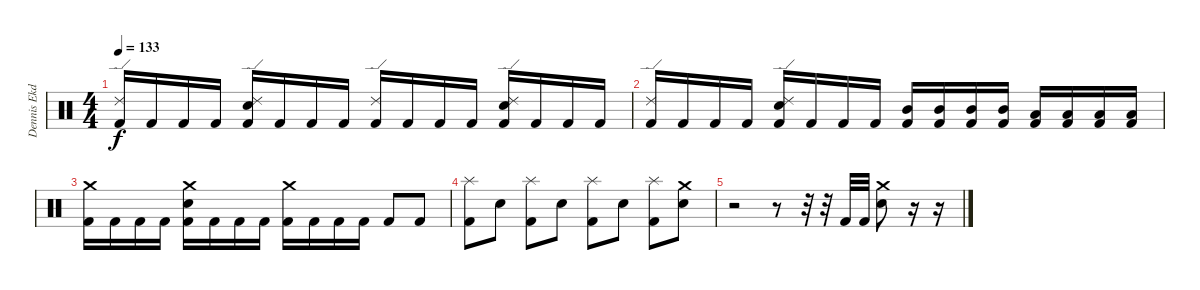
\track ("Dennis Ekdahl" "Dennis Ekd") {instrument percussion}
\staff {score}
\articulation defaults
\ts (4 4)
\tempo 133
\clef neutral
\ks c
("Ride (edge) 2" "Kick (hit) 2").16{dy f} "Kick (hit) 2".16 "Kick (hit) 2".16 "Kick (hit) 2".16 ("Ride (edge) 2" "Snare (hit) 2" "Kick (hit) 2").16 "Kick (hit) 2".16 "Kick (hit) 2".16 "Kick (hit) 2".16 ("Ride (edge) 2" "Kick (hit) 2").16 "Kick (hit) 2".16 "Kick (hit) 2".16 "Kick (hit) 2".16 ("Ride (edge) 2" "Snare (hit) 2" "Kick (hit) 2").16 "Kick (hit) 2".16 "Kick (hit) 2".16 "Kick (hit) 2".16 |
("Ride (edge) 2" "Kick (hit) 2").16 "Kick (hit) 2".16 "Kick (hit) 2".16 "Kick (hit) 2".16 ("Ride (edge) 2" "Snare (hit) 2" "Kick (hit) 2").16 "Kick (hit) 2".16 "Kick (hit) 2".16 "Kick (hit) 2".16 ("Mid Tom (hit)" "Kick (hit) 2").16 ("Mid Tom (hit)" "Kick (hit) 2").16 ("Mid Tom (hit)" "Kick (hit) 2").16 ("Mid Tom (hit)" "Kick (hit) 2").16 ("Low Tom (hit)" "Kick (hit) 2").16 ("Low Tom (hit)" "Kick (hit) 2").16 ("Low Tom (hit)" "Kick (hit) 2").16 ("Low Tom (hit)" "Kick (hit) 2").16 |
("Crash medium (hit)" "Kick (hit) 2").16 "Kick (hit) 2".16 "Kick (hit) 2".16 "Kick (hit) 2".16 ("Crash medium (hit)" "Snare (hit) 2" "Kick (hit) 2").16 "Kick (hit) 2".16 "Kick (hit) 2".16 "Kick (hit) 2".16 ("Crash medium (hit)" "Kick (hit) 2").16 "Kick (hit) 2".16 "Kick (hit) 2".16 "Kick (hit) 2".16 "Kick (hit) 2".8 "Kick (hit) 2".8 |
("Splash (hit)" "Kick (hit) 2").8 "Snare (hit) 2".8 ("Splash (hit)" "Kick (hit) 2").8 "Snare (hit) 2".8 ("Splash (hit)" "Kick (hit) 2").8 "Snare (hit) 2".8 ("Splash (hit)" "Kick (hit) 2").8 ("Crash medium (hit)" "Snare (hit) 2").8 |
r.2 r.8 r.32 r.32 "Kick (hit) 2".32 "Kick (hit) 2".32 ("Crash medium (hit)" "Snare (hit) 2").8 r.16 r.16
